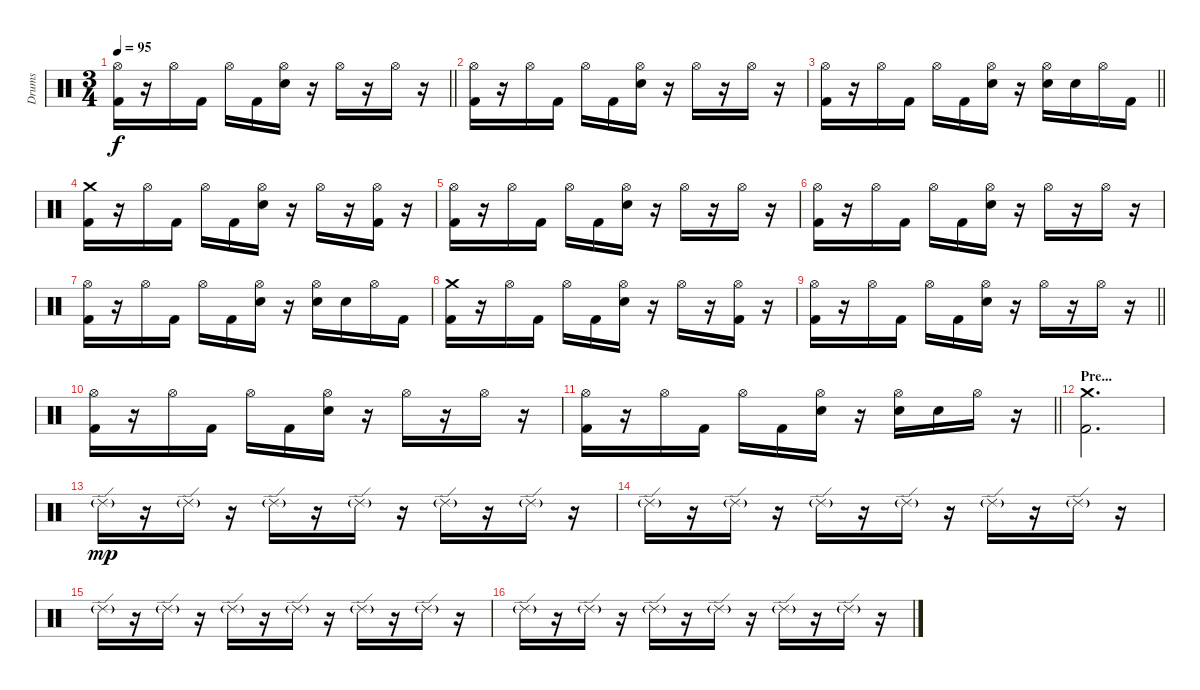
\track ("Drums" "Drums") {instrument percussion}
\staff {score}
\articulation defaults
\ts (3 4)
\tempo 95
\clef neutral
\barLineRight lightlight
\ks c
("Hi-Hat (open)" "Kick (hit) 2").16{dy f} r.16 "Hi-Hat (open)".16 "Kick (hit) 2".16 "Hi-Hat (open)".16 "Kick (hit) 2".16 ("Hi-Hat (open)" "Electric Snare (hit)").16 r.16 "Hi-Hat (open)".16 r.16 "Hi-Hat (open)".16 r.16 |
("Hi-Hat (open)" "Kick (hit) 2").16 r.16 "Hi-Hat (open)".16 "Kick (hit) 2".16 "Hi-Hat (open)".16 "Kick (hit) 2".16 ("Hi-Hat (open)" "Electric Snare (hit)").16 r.16 "Hi-Hat (open)".16 r.16 "Hi-Hat (open)".16 r.16 |
\barLineRight lightlight
("Hi-Hat (open)" "Kick (hit) 2").16 r.16 "Hi-Hat (open)".16 "Kick (hit) 2".16 "Hi-Hat (open)".16 "Kick (hit) 2".16 ("Hi-Hat (open)" "Electric Snare (hit)").16 r.16 ("Hi-Hat (open)" "Electric Snare (hit)").16 "Electric Snare (hit)".16 "Hi-Hat (open)".16 "Kick (hit) 2".16 |
("Crash medium (hit)" "Kick (hit) 2").16 r.16 "Hi-Hat (open)".16 "Kick (hit) 2".16 "Hi-Hat (open)".16 "Kick (hit) 2".16 ("Hi-Hat (open)" "Electric Snare (hit)").16 r.16 "Hi-Hat (open)".16 r.16 ("Hi-Hat (open)" "Kick (hit) 2").16 r.16 |
("Hi-Hat (open)" "Kick (hit) 2").16 r.16 "Hi-Hat (open)".16 "Kick (hit) 2".16 "Hi-Hat (open)".16 "Kick (hit) 2".16 ("Hi-Hat (open)" "Electric Snare (hit)").16 r.16 "Hi-Hat (open)".16 r.16 "Hi-Hat (open)".16 r.16 |
("Hi-Hat (open)" "Kick (hit) 2").16 r.16 "Hi-Hat (open)".16 "Kick (hit) 2".16 "Hi-Hat (open)".16 "Kick (hit) 2".16 ("Hi-Hat (open)" "Electric Snare (hit)").16 r.16 "Hi-Hat (open)".16 r.16 "Hi-Hat (open)".16 r.16 |
("Hi-Hat (open)" "Kick (hit) 2").16 r.16 "Hi-Hat (open)".16 "Kick (hit) 2".16 "Hi-Hat (open)".16 "Kick (hit) 2".16 ("Hi-Hat (open)" "Electric Snare (hit)").16 r.16 ("Hi-Hat (open)" "Electric Snare (hit)").16 "Electric Snare (hit)".16 "Hi-Hat (open)".16 "Kick (hit) 2".16 |
("Crash medium (hit)" "Kick (hit) 2").16 r.16 "Hi-Hat (open)".16 "Kick (hit) 2".16 "Hi-Hat (open)".16 "Kick (hit) 2".16 ("Hi-Hat (open)" "Electric Snare (hit)").16 r.16 "Hi-Hat (open)".16 r.16 ("Hi-Hat (open)" "Kick (hit) 2").16 r.16 |
\barLineRight lightlight
("Hi-Hat (open)" "Kick (hit) 2").16 r.16 "Hi-Hat (open)".16 "Kick (hit) 2".16 "Hi-Hat (open)".16 "Kick (hit) 2".16 ("Hi-Hat (open)" "Electric Snare (hit)").16 r.16 "Hi-Hat (open)".16 r.16 "Hi-Hat (open)".16 r.16 |
("Hi-Hat (open)" "Kick (hit) 2").16 r.16 "Hi-Hat (open)".16 "Kick (hit) 2".16 "Hi-Hat (open)".16 "Kick (hit) 2".16 ("Hi-Hat (open)" "Electric Snare (hit)").16 r.16 "Hi-Hat (open)".16 r.16 "Hi-Hat (open)".16 r.16 |
\barLineRight lightlight
("Hi-Hat (open)" "Kick (hit) 2").16 r.16 "Hi-Hat (open)".16 "Kick (hit) 2".16 "Hi-Hat (open)".16 "Kick (hit) 2".16 ("Hi-Hat (open)" "Electric Snare (hit)").16 r.16 ("Hi-Hat (open)" "Electric Snare (hit)").16 "Electric Snare (hit)".16 "Hi-Hat (open)".16 r.16 |
\section ("" "Pre...")
("Crash medium (hit)" "Kick (hit) 2").2{d} |
"Ride (edge) 2"{g}.16{dy mp} r.16 "Ride (edge) 2"{g}.16 r.16 "Ride (edge) 2"{g}.16 r.16 "Ride (edge) 2"{g}.16 r.16 "Ride (edge) 2"{g}.16 r.16 "Ride (edge) 2"{g}.16 r.16 |
"Ride (edge) 2"{g}.16 r.16 "Ride (edge) 2"{g}.16 r.16 "Ride (edge) 2"{g}.16 r.16 "Ride (edge) 2"{g}.16 r.16 "Ride (edge) 2"{g}.16 r.16 "Ride (edge) 2"{g}.16 r.16 |
"Ride (edge) 2"{g}.16 r.16 "Ride (edge) 2"{g}.16 r.16 "Ride (edge) 2"{g}.16 r.16 "Ride (edge) 2"{g}.16 r.16 "Ride (edge) 2"{g}.16 r.16 "Ride (edge) 2"{g}.16 r.16 |
"Ride (edge) 2"{g}.16 r.16 "Ride (edge) 2"{g}.16 r.16 "Ride (edge) 2"{g}.16 r.16 "Ride (edge) 2"{g}.16 r.16 "Ride (edge) 2"{g}.16 r.16 "Ride (edge) 2"{g}.16 r.16
